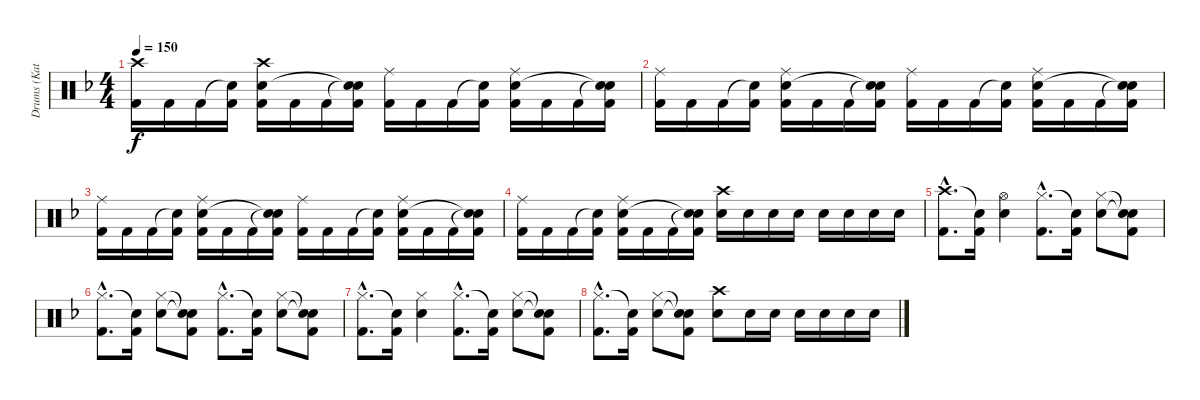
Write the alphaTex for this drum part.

\track ("Drums (Katsuji)" "Drums (Kat") {instrument percussion}
\staff {score}
\articulation defaults
\ts (4 4)
\tempo 150
\clef neutral
\ks f
("Crash high (hit)" "Kick (hit) 2").16{dy f} "Kick (hit) 2".16 "Kick (hit) 2".16 ("Snare (hit)"{t} "Kick (hit) 2").16 ("Crash high (hit)" "Snare (hit) 2" "Kick (hit) 2").16 "Kick (hit) 2".16 "Kick (hit) 2".16 ("Snare (hit)"{t} "Snare (hit)"{t} "Kick (hit) 2").16 ("Ride (middle)" "Kick (hit) 2").16 "Kick (hit) 2".16 "Kick (hit) 2".16 ("Snare (hit)"{t} "Kick (hit) 2").16 ("Ride (middle)" "Snare (hit) 2" "Kick (hit) 2").16 "Kick (hit) 2".16 "Kick (hit) 2".16 ("Snare (hit)"{t} "Snare (hit)"{t} "Kick (hit) 2").16 |
("Ride (middle)" "Kick (hit) 2").16 "Kick (hit) 2".16 "Kick (hit) 2".16 ("Snare (hit)"{t} "Kick (hit) 2").16 ("Ride (middle)" "Snare (hit) 2" "Kick (hit) 2").16 "Kick (hit) 2".16 "Kick (hit) 2".16 ("Snare (hit)"{t} "Snare (hit)"{t} "Kick (hit) 2").16 ("Ride (middle)" "Kick (hit) 2").16 "Kick (hit) 2".16 "Kick (hit) 2".16 ("Snare (hit)"{t} "Kick (hit) 2").16 ("Ride (middle)" "Snare (hit) 2" "Kick (hit) 2").16 "Kick (hit) 2".16 "Kick (hit) 2".16 ("Snare (hit)"{t} "Snare (hit)"{t} "Kick (hit) 2").16 |
("Ride (middle)" "Kick (hit) 2").16 "Kick (hit) 2".16 "Kick (hit) 2".16 ("Snare (hit)"{t} "Kick (hit) 2").16 ("Ride (middle)" "Snare (hit) 2" "Kick (hit) 2").16 "Kick (hit) 2".16 "Kick (hit) 2".16 ("Snare (hit)"{t} "Snare (hit)"{t} "Kick (hit) 2").16 ("Ride (middle)" "Kick (hit) 2").16 "Kick (hit) 2".16 "Kick (hit) 2".16 ("Snare (hit)"{t} "Kick (hit) 2").16 ("Ride (middle)" "Snare (hit) 2" "Kick (hit) 2").16 "Kick (hit) 2".16 "Kick (hit) 2".16 ("Snare (hit)"{t} "Snare (hit)"{t} "Kick (hit) 2").16 |
("Ride (middle)" "Kick (hit) 2").16 "Kick (hit) 2".16 "Kick (hit) 2".16 ("Snare (hit)"{t} "Kick (hit) 2").16 ("Ride (middle)" "Snare (hit) 2" "Kick (hit) 2").16 "Kick (hit) 2".16 "Kick (hit) 2".16 ("Snare (hit)"{t} "Snare (hit)"{t} "Kick (hit) 2").16 ("Crash high (hit)" "Snare (hit) 2").16 "Snare (hit) 2".16 "Snare (hit) 2".16 "Snare (hit) 2".16 "Snare (hit) 2".16 "Snare (hit) 2".16 "Snare (hit) 2".16 "Snare (hit) 2".16 |
("Crash high (hit)"{hac} "Kick (hit) 2"{hac}).8{d} ("Snare (hit)"{t} "Kick (hit) 2").16 ("Hi-Hat (open)" "Snare (hit) 2").4 ("Hi-Hat (closed)"{hac} "Kick (hit) 2"{hac}).8{d} ("Snare (hit)"{t} "Kick (hit) 2").16 ("Hi-Hat (closed)" "Snare (hit) 2").8 ("Snare (hit)"{t} "Snare (hit)"{t} "Kick (hit) 2").8 |
("Hi-Hat (closed)"{hac} "Kick (hit) 2"{hac}).8{d} ("Snare (hit)"{t} "Kick (hit) 2").16 ("Hi-Hat (closed)" "Snare (hit) 2").8 ("Snare (hit)"{t} "Snare (hit)"{t} "Kick (hit) 2").8 ("Hi-Hat (closed)"{hac} "Kick (hit) 2"{hac}).8{d} ("Snare (hit)"{t} "Kick (hit) 2").16 ("Hi-Hat (closed)" "Snare (hit) 2").8 ("Snare (hit)"{t} "Snare (hit)"{t} "Kick (hit) 2").8 |
("Hi-Hat (closed)"{hac} "Kick (hit) 2"{hac}).8{d} ("Snare (hit)"{t} "Kick (hit) 2").16 ("Hi-Hat (closed)" "Snare (hit) 2").4 ("Hi-Hat (closed)"{hac} "Kick (hit) 2"{hac}).8{d} ("Snare (hit)"{t} "Kick (hit) 2").16 ("Hi-Hat (closed)" "Snare (hit) 2").8 ("Snare (hit)"{t} "Snare (hit)"{t} "Kick (hit) 2").8 |
("Hi-Hat (closed)"{hac} "Kick (hit) 2"{hac}).8{d} ("Snare (hit)"{t} "Kick (hit) 2").16 ("Hi-Hat (closed)" "Snare (hit) 2").8 ("Snare (hit)"{t} "Snare (hit)"{t} "Kick (hit) 2").8 ("Crash high (hit)" "Snare (hit) 2").8 "Snare (hit) 2".16 "Snare (hit) 2".16 "Snare (hit) 2".16 "Snare (hit) 2".16 "Snare (hit) 2".16 "Snare (hit) 2".16
